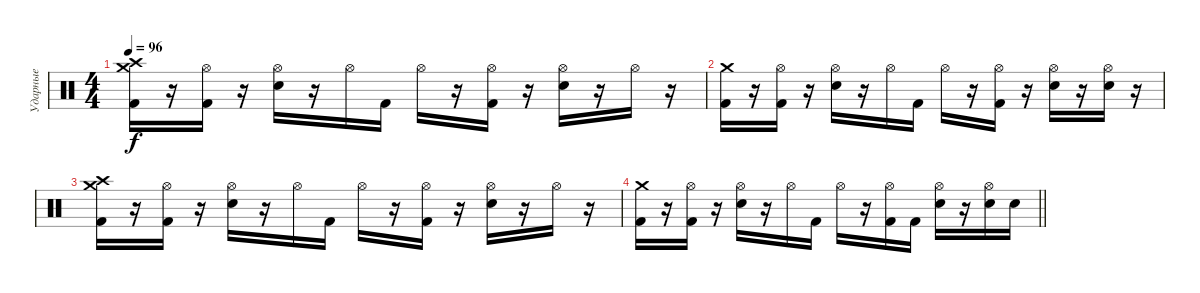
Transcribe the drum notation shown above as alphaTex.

\track ("Ударные" "Ударные") {instrument percussion}
\staff {score}
\articulation defaults
\ts (4 4)
\tempo 96
\clef neutral
\ks c
("Crash medium (hit)" "Kick (hit) 2" "Crash high (hit)").16{dy f} r.16 ("Hi-Hat (open)" "Kick (hit) 2").16 r.16 ("Hi-Hat (open)" "Electric Snare (hit)").16 r.16 "Hi-Hat (open)".16 "Kick (hit) 2".16 "Hi-Hat (open)".16 r.16 ("Hi-Hat (open)" "Kick (hit) 2").16 r.16 ("Hi-Hat (open)" "Electric Snare (hit)").16 r.16 "Hi-Hat (open)".16 r.16 |
("Crash medium (hit)" "Kick (hit) 2").16 r.16 ("Hi-Hat (open)" "Kick (hit) 2").16 r.16 ("Hi-Hat (open)" "Electric Snare (hit)").16 r.16 "Hi-Hat (open)".16 "Kick (hit) 2".16 "Hi-Hat (open)".16 r.16 ("Hi-Hat (open)" "Kick (hit) 2").16 r.16 ("Hi-Hat (open)" "Electric Snare (hit)").16 r.16 ("Hi-Hat (open)" "Electric Snare (hit)").16 r.16 |
("Crash medium (hit)" "Kick (hit) 2" "Crash high (hit)").16 r.16 ("Hi-Hat (open)" "Kick (hit) 2").16 r.16 ("Hi-Hat (open)" "Electric Snare (hit)").16 r.16 "Hi-Hat (open)".16 "Kick (hit) 2".16 "Hi-Hat (open)".16 r.16 ("Hi-Hat (open)" "Kick (hit) 2").16 r.16 ("Hi-Hat (open)" "Electric Snare (hit)").16 r.16 "Hi-Hat (open)".16 r.16 |
\barLineRight lightlight
("Crash medium (hit)" "Kick (hit) 2").16 r.16 ("Hi-Hat (open)" "Kick (hit) 2").16 r.16 ("Hi-Hat (open)" "Electric Snare (hit)").16 r.16 "Hi-Hat (open)".16 "Kick (hit) 2".16 "Hi-Hat (open)".16 r.16 ("Hi-Hat (open)" "Kick (hit) 2").16 "Kick (hit) 2".16 ("Hi-Hat (open)" "Electric Snare (hit)").16 r.16 ("Hi-Hat (open)" "Electric Snare (hit)").16 "Electric Snare (hit)".16
